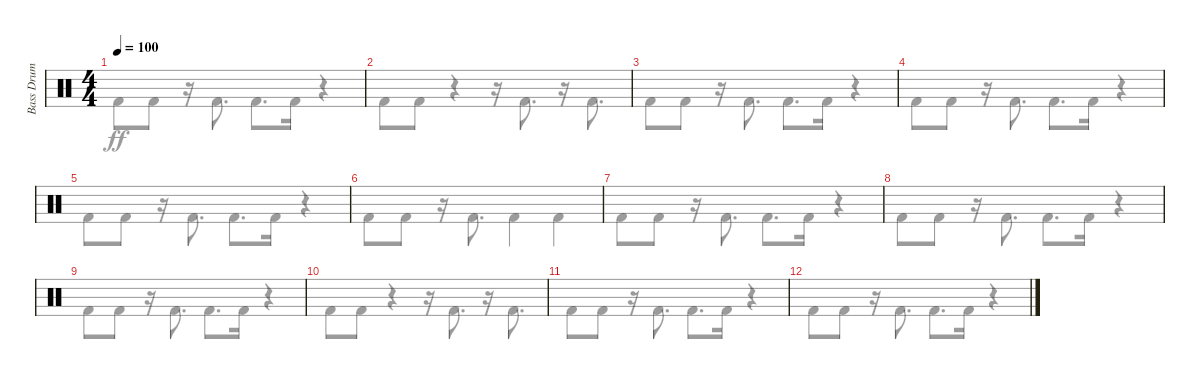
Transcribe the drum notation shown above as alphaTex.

\track ("Bass Drum" "Bass Drum") {instrument percussion}
\staff {score}
\articulation defaults
\voice
\ts (4 4)
\tempo 100
\clef neutral
\ks c
|
|
|
|
|
|
|
|
|
|
|
\voice
\clef neutral
\ks c "Kick (hit) 2".8{dy ff} "Kick (hit) 2".8
r.16 "Kick (hit) 2".8{d} "Kick (hit) 2".8{d} "Kick (hit) 2".16 r.4 |
"Kick (hit) 2".8 "Kick (hit) 2".8 r.4 r.16 "Kick (hit) 2".8{d} r.16 "Kick (hit) 2".8{d} |
"Kick (hit) 2".8 "Kick (hit) 2".8 r.16 "Kick (hit) 2".8{d} "Kick (hit) 2".8{d} "Kick (hit) 2".16 r.4 |
"Kick (hit) 2".8 "Kick (hit) 2".8 r.16 "Kick (hit) 2".8{d} "Kick (hit) 2".8{d} "Kick (hit) 2".16 r.4 |
"Kick (hit) 2".8 "Kick (hit) 2".8 r.16 "Kick (hit) 2".8{d} "Kick (hit) 2".8{d} "Kick (hit) 2".16 r.4 |
"Kick (hit) 2".8 "Kick (hit) 2".8 r.16 "Kick (hit) 2".8{d} "Kick (hit) 2".4 "Kick (hit) 2".4 |
"Kick (hit) 2".8 "Kick (hit) 2".8 r.16 "Kick (hit) 2".8{d} "Kick (hit) 2".8{d} "Kick (hit) 2".16 r.4 |
"Kick (hit) 2".8 "Kick (hit) 2".8 r.16 "Kick (hit) 2".8{d} "Kick (hit) 2".8{d} "Kick (hit) 2".16 r.4 |
"Kick (hit) 2".8 "Kick (hit) 2".8 r.16 "Kick (hit) 2".8{d} "Kick (hit) 2".8{d} "Kick (hit) 2".16 r.4 |
"Kick (hit) 2".8 "Kick (hit) 2".8 r.4 r.16 "Kick (hit) 2".8{d} r.16 "Kick (hit) 2".8{d} |
"Kick (hit) 2".8 "Kick (hit) 2".8 r.16 "Kick (hit) 2".8{d} "Kick (hit) 2".8{d} "Kick (hit) 2".16 r.4 |
"Kick (hit) 2".8 "Kick (hit) 2".8 r.16 "Kick (hit) 2".8{d} "Kick (hit) 2".8{d} "Kick (hit) 2".16 r.4
